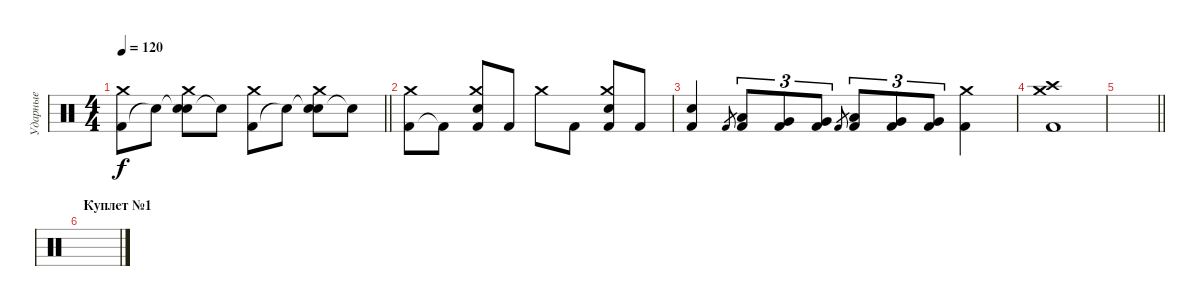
\track ("Ударные" "Ударные") {instrument percussion}
\staff {score}
\articulation defaults
\ts (4 4)
\tempo 120
\clef neutral
\barLineRight lightlight
\ks c
("Kick (hit) 2" "Crash medium (hit)").8{dy f} "Snare (hit)"{t}.8 ("Snare (hit)"{t} "Crash medium (hit)" "Electric Snare (hit)").8 "Snare (hit)"{t}.8 ("Kick (hit) 2" "Crash medium (hit)").8 "Snare (hit)"{t}.8 ("Snare (hit)"{t} "Crash medium (hit)" "Electric Snare (hit)").8 "Snare (hit)"{t}.8 |
\section ("" " ")
("Kick (hit) 2" "Crash medium (hit)").8 "Kick (hit) 2"{t}.8 ("Kick (hit) 2" "Crash medium (hit)" "Electric Snare (hit)").8 "Kick (hit) 2".8 "Crash medium (hit)".8 "Kick (hit) 2".8 ("Kick (hit) 2" "Crash medium (hit)" "Electric Snare (hit)").8 "Kick (hit) 2".8 |
("Kick (hit) 2" "Electric Snare (hit)").4 "Kick (hit) 2".8{gr} ("Kick (hit) 2" "Low Tom (hit)").8{tu (3 2)} ("Kick (hit) 2" "Very Low Tom (hit)").8{tu (3 2)} ("Kick (hit) 2" "Very Low Tom (hit)").8{tu (3 2)} "Kick (hit) 2".8{gr} ("Kick (hit) 2" "Low Tom (hit)").8{tu (3 2)} ("Kick (hit) 2" "Very Low Tom (hit)").8{tu (3 2)} ("Kick (hit) 2" "Very Low Tom (hit)").8{tu (3 2)} ("Kick (hit) 2" "Crash medium (hit)").4 |
("Kick (hit) 2" "Crash high (hit)" "Crash medium (hit)").1 |
\barLineRight lightlight
|
\section ("" "Куплет №1")
